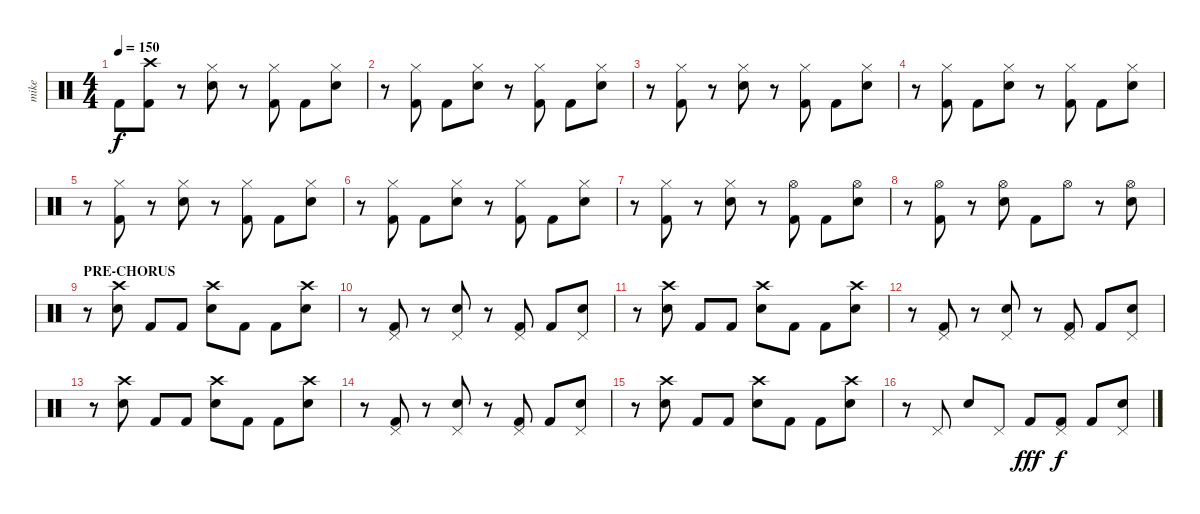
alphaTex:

\track ("mike" "mike") {instrument percussion}
\staff {score}
\articulation defaults
\ts (4 4)
\tempo 150
\clef neutral
\ks c "Kick (hit) 2".8{dy f}
("Crash high (hit)" "Kick (hit) 2").8 r.8 ("Hi-Hat (closed)" "Electric Snare (hit)").8 r.8 ("Hi-Hat (closed)" "Kick (hit) 2").8 "Kick (hit) 2".8 ("Hi-Hat (closed)" "Electric Snare (hit)").8 |
r.8 ("Hi-Hat (closed)" "Kick (hit) 2").8 "Kick (hit) 2".8 ("Hi-Hat (closed)" "Electric Snare (hit)").8 r.8 ("Hi-Hat (closed)" "Kick (hit) 2").8 "Kick (hit) 2".8 ("Hi-Hat (closed)" "Electric Snare (hit)").8 |
r.8 ("Hi-Hat (closed)" "Kick (hit) 2").8 r.8 ("Hi-Hat (closed)" "Electric Snare (hit)").8 r.8 ("Hi-Hat (closed)" "Kick (hit) 2").8 "Kick (hit) 2".8 ("Hi-Hat (closed)" "Electric Snare (hit)").8 |
r.8 ("Hi-Hat (closed)" "Kick (hit) 2").8 "Kick (hit) 2".8 ("Hi-Hat (closed)" "Electric Snare (hit)").8 r.8 ("Hi-Hat (closed)" "Kick (hit) 2").8 "Kick (hit) 2".8 ("Hi-Hat (closed)" "Electric Snare (hit)").8 |
r.8 ("Hi-Hat (closed)" "Kick (hit) 2").8 r.8 ("Hi-Hat (closed)" "Electric Snare (hit)").8 r.8 ("Hi-Hat (closed)" "Kick (hit) 2").8 "Kick (hit) 2".8 ("Hi-Hat (closed)" "Electric Snare (hit)").8 |
r.8 ("Hi-Hat (closed)" "Kick (hit) 2").8 "Kick (hit) 2".8 ("Hi-Hat (closed)" "Electric Snare (hit)").8 r.8 ("Hi-Hat (closed)" "Kick (hit) 2").8 "Kick (hit) 2".8 ("Hi-Hat (closed)" "Electric Snare (hit)").8 |
r.8 ("Hi-Hat (closed)" "Kick (hit) 2").8 r.8 ("Hi-Hat (closed)" "Electric Snare (hit)").8 r.8 ("Hi-Hat (open)" "Kick (hit) 2").8 "Kick (hit) 2".8 ("Hi-Hat (open)" "Electric Snare (hit)").8 |
r.8 ("Hi-Hat (open)" "Kick (hit) 2").8 r.8 ("Hi-Hat (open)" "Electric Snare (hit)").8 "Kick (hit) 2".8 "Hi-Hat (open)".8 r.8 ("Hi-Hat (open)" "Electric Snare (hit)").8 |
\section ("" "PRE-CHORUS")
r.8 ("Crash high (hit)" "Electric Snare (hit)").8 "Kick (hit) 2".8 "Kick (hit) 2".8 ("Crash high (hit)" "Electric Snare (hit)").8 "Kick (hit) 2".8 "Kick (hit) 2".8 ("Crash high (hit)" "Electric Snare (hit)").8 |
r.8 ("Pedal Hi-Hat (hit)" "Kick (hit) 2").8 r.8 ("Pedal Hi-Hat (hit)" "Electric Snare (hit)").8 r.8 ("Pedal Hi-Hat (hit)" "Kick (hit) 2").8 "Kick (hit) 2".8 ("Pedal Hi-Hat (hit)" "Electric Snare (hit)").8 |
r.8 ("Crash high (hit)" "Electric Snare (hit)").8 "Kick (hit) 2".8 "Kick (hit) 2".8 ("Crash high (hit)" "Electric Snare (hit)").8 "Kick (hit) 2".8 "Kick (hit) 2".8 ("Crash high (hit)" "Electric Snare (hit)").8 |
r.8 ("Pedal Hi-Hat (hit)" "Kick (hit) 2").8 r.8 ("Pedal Hi-Hat (hit)" "Electric Snare (hit)").8 r.8 ("Pedal Hi-Hat (hit)" "Kick (hit) 2").8 "Kick (hit) 2".8 ("Pedal Hi-Hat (hit)" "Electric Snare (hit)").8 |
r.8 ("Crash high (hit)" "Electric Snare (hit)").8 "Kick (hit) 2".8 "Kick (hit) 2".8 ("Crash high (hit)" "Electric Snare (hit)").8 "Kick (hit) 2".8 "Kick (hit) 2".8 ("Crash high (hit)" "Electric Snare (hit)").8 |
r.8 ("Pedal Hi-Hat (hit)" "Kick (hit) 2").8 r.8 ("Pedal Hi-Hat (hit)" "Electric Snare (hit)").8 r.8 ("Pedal Hi-Hat (hit)" "Kick (hit) 2").8 "Kick (hit) 2".8 ("Pedal Hi-Hat (hit)" "Electric Snare (hit)").8 |
r.8 ("Crash high (hit)" "Electric Snare (hit)").8 "Kick (hit) 2".8 "Kick (hit) 2".8 ("Crash high (hit)" "Electric Snare (hit)").8 "Kick (hit) 2".8 "Kick (hit) 2".8 ("Crash high (hit)" "Electric Snare (hit)").8 |
r.8 "Pedal Hi-Hat (hit)".8 "Electric Snare (hit)".8 "Pedal Hi-Hat (hit)".8 "Kick (hit) 2".8{dy fff} ("Pedal Hi-Hat (hit)" "Kick (hit) 2").8{dy f} "Kick (hit) 2".8 ("Pedal Hi-Hat (hit)" "Electric Snare (hit)").8
